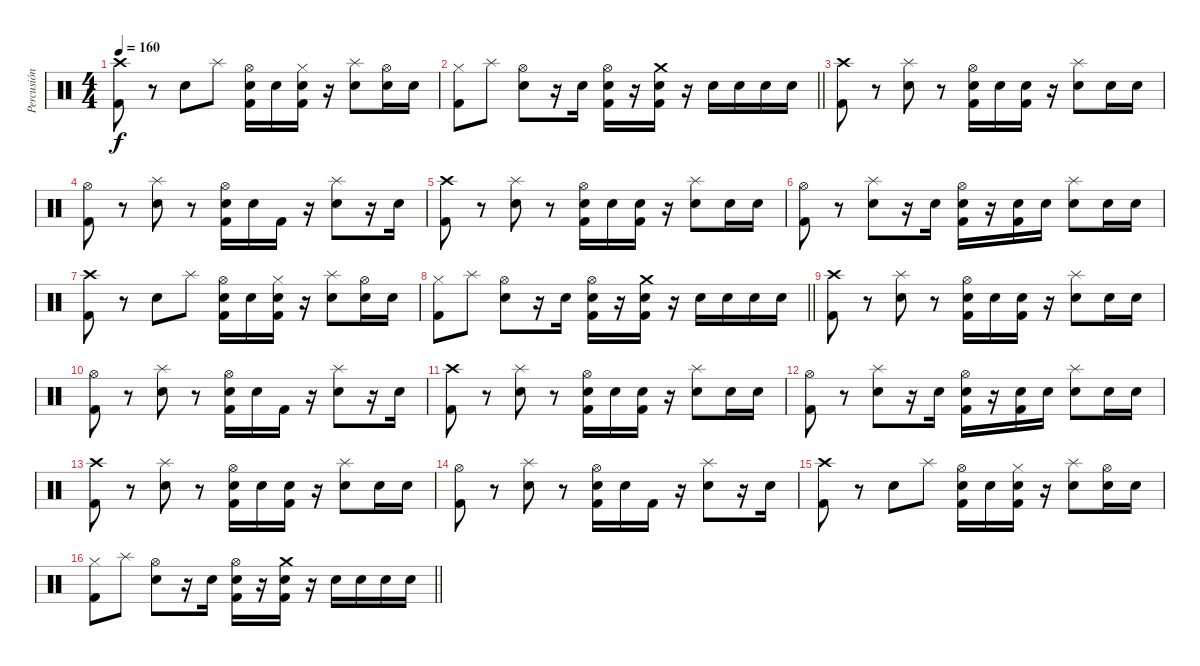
\track ("Percusión" "Percusión") {instrument percussion}
\staff {score}
\articulation defaults
\ts (4 4)
\tempo 160
\clef neutral
\ks c
("Crash high (hit)" "Kick (hit) 2").8{dy f} r.8 "Electric Snare (hit)".8 "Splash (hit)".8 ("Hi-Hat (open)" "Electric Snare (hit)" "Kick (hit) 2").16 "Electric Snare (hit)".16 ("Hi-Hat (closed)" "Electric Snare (hit)" "Kick (hit) 2").16 r.16 ("Splash (hit)" "Electric Snare (hit)").8 ("Hi-Hat (open)" "Electric Snare (hit)").16 "Electric Snare (hit)".16 |
\barLineRight lightlight
("Hi-Hat (closed)" "Kick (hit) 2").8 "Splash (hit)".8 ("Hi-Hat (open)" "Electric Snare (hit)").8 r.16 "Electric Snare (hit)".16 ("Hi-Hat (open)" "Electric Snare (hit)" "Kick (hit) 2").16 r.16 ("Crash medium (hit)" "Electric Snare (hit)" "Kick (hit) 2").16 r.16 "Electric Snare (hit)".16 "Electric Snare (hit)".16 "Electric Snare (hit)".16 "Electric Snare (hit)".16 |
("Crash high (hit)" "Kick (hit) 2").8 r.8 ("Splash (hit)" "Electric Snare (hit)").8 r.8 ("Hi-Hat (open)" "Electric Snare (hit)" "Kick (hit) 2").16 "Electric Snare (hit)".16 ("Electric Snare (hit)" "Kick (hit) 2").16 r.16 ("Splash (hit)" "Electric Snare (hit)").8 "Electric Snare (hit)".16 "Electric Snare (hit)".16 |
("Hi-Hat (open)" "Kick (hit) 2").8 r.8 ("Splash (hit)" "Electric Snare (hit)").8 r.8 ("Hi-Hat (open)" "Electric Snare (hit)" "Kick (hit) 2").16 "Electric Snare (hit)".16 "Kick (hit) 2".16 r.16 ("Splash (hit)" "Electric Snare (hit)").8 r.16 "Electric Snare (hit)".16 |
("Crash high (hit)" "Kick (hit) 2").8 r.8 ("Splash (hit)" "Electric Snare (hit)").8 r.8 ("Hi-Hat (open)" "Electric Snare (hit)" "Kick (hit) 2").16 "Electric Snare (hit)".16 ("Electric Snare (hit)" "Kick (hit) 2").16 r.16 ("Splash (hit)" "Electric Snare (hit)").8 "Electric Snare (hit)".16 "Electric Snare (hit)".16 |
("Hi-Hat (open)" "Kick (hit) 2").8 r.8 ("Splash (hit)" "Electric Snare (hit)").8 r.16 "Electric Snare (hit)".16 ("Hi-Hat (open)" "Electric Snare (hit)" "Kick (hit) 2").16 r.16 ("Electric Snare (hit)" "Kick (hit) 2").16 "Electric Snare (hit)".16 ("Splash (hit)" "Electric Snare (hit)").8 "Electric Snare (hit)".16 "Electric Snare (hit)".16 |
("Crash high (hit)" "Kick (hit) 2").8 r.8 "Electric Snare (hit)".8 "Splash (hit)".8 ("Hi-Hat (open)" "Electric Snare (hit)" "Kick (hit) 2").16 "Electric Snare (hit)".16 ("Hi-Hat (closed)" "Electric Snare (hit)" "Kick (hit) 2").16 r.16 ("Splash (hit)" "Electric Snare (hit)").8 ("Hi-Hat (open)" "Electric Snare (hit)").16 "Electric Snare (hit)".16 |
\barLineRight lightlight
("Hi-Hat (closed)" "Kick (hit) 2").8 "Splash (hit)".8 ("Hi-Hat (open)" "Electric Snare (hit)").8 r.16 "Electric Snare (hit)".16 ("Hi-Hat (open)" "Electric Snare (hit)" "Kick (hit) 2").16 r.16 ("Crash medium (hit)" "Electric Snare (hit)" "Kick (hit) 2").16 r.16 "Electric Snare (hit)".16 "Electric Snare (hit)".16 "Electric Snare (hit)".16 "Electric Snare (hit)".16 |
("Crash high (hit)" "Kick (hit) 2").8 r.8 ("Splash (hit)" "Electric Snare (hit)").8 r.8 ("Hi-Hat (open)" "Electric Snare (hit)" "Kick (hit) 2").16 "Electric Snare (hit)".16 ("Electric Snare (hit)" "Kick (hit) 2").16 r.16 ("Splash (hit)" "Electric Snare (hit)").8 "Electric Snare (hit)".16 "Electric Snare (hit)".16 |
("Hi-Hat (open)" "Kick (hit) 2").8 r.8 ("Splash (hit)" "Electric Snare (hit)").8 r.8 ("Hi-Hat (open)" "Electric Snare (hit)" "Kick (hit) 2").16 "Electric Snare (hit)".16 "Kick (hit) 2".16 r.16 ("Splash (hit)" "Electric Snare (hit)").8 r.16 "Electric Snare (hit)".16 |
("Crash high (hit)" "Kick (hit) 2").8 r.8 ("Splash (hit)" "Electric Snare (hit)").8 r.8 ("Hi-Hat (open)" "Electric Snare (hit)" "Kick (hit) 2").16 "Electric Snare (hit)".16 ("Electric Snare (hit)" "Kick (hit) 2").16 r.16 ("Splash (hit)" "Electric Snare (hit)").8 "Electric Snare (hit)".16 "Electric Snare (hit)".16 |
("Hi-Hat (open)" "Kick (hit) 2").8 r.8 ("Splash (hit)" "Electric Snare (hit)").8 r.16 "Electric Snare (hit)".16 ("Hi-Hat (open)" "Electric Snare (hit)" "Kick (hit) 2").16 r.16 ("Electric Snare (hit)" "Kick (hit) 2").16 "Electric Snare (hit)".16 ("Splash (hit)" "Electric Snare (hit)").8 "Electric Snare (hit)".16 "Electric Snare (hit)".16 |
("Crash high (hit)" "Kick (hit) 2").8 r.8 ("Splash (hit)" "Electric Snare (hit)").8 r.8 ("Hi-Hat (open)" "Electric Snare (hit)" "Kick (hit) 2").16 "Electric Snare (hit)".16 ("Electric Snare (hit)" "Kick (hit) 2").16 r.16 ("Splash (hit)" "Electric Snare (hit)").8 "Electric Snare (hit)".16 "Electric Snare (hit)".16 |
("Hi-Hat (open)" "Kick (hit) 2").8 r.8 ("Splash (hit)" "Electric Snare (hit)").8 r.8 ("Hi-Hat (open)" "Electric Snare (hit)" "Kick (hit) 2").16 "Electric Snare (hit)".16 "Kick (hit) 2".16 r.16 ("Splash (hit)" "Electric Snare (hit)").8 r.16 "Electric Snare (hit)".16 |
("Crash high (hit)" "Kick (hit) 2").8 r.8 "Electric Snare (hit)".8 "Splash (hit)".8 ("Hi-Hat (open)" "Electric Snare (hit)" "Kick (hit) 2").16 "Electric Snare (hit)".16 ("Hi-Hat (closed)" "Electric Snare (hit)" "Kick (hit) 2").16 r.16 ("Splash (hit)" "Electric Snare (hit)").8 ("Hi-Hat (open)" "Electric Snare (hit)").16 "Electric Snare (hit)".16 |
\barLineRight lightlight
("Hi-Hat (closed)" "Kick (hit) 2").8 "Splash (hit)".8 ("Hi-Hat (open)" "Electric Snare (hit)").8 r.16 "Electric Snare (hit)".16 ("Hi-Hat (open)" "Electric Snare (hit)" "Kick (hit) 2").16 r.16 ("Crash medium (hit)" "Electric Snare (hit)" "Kick (hit) 2").16 r.16 "Electric Snare (hit)".16 "Electric Snare (hit)".16 "Electric Snare (hit)".16 "Electric Snare (hit)".16
